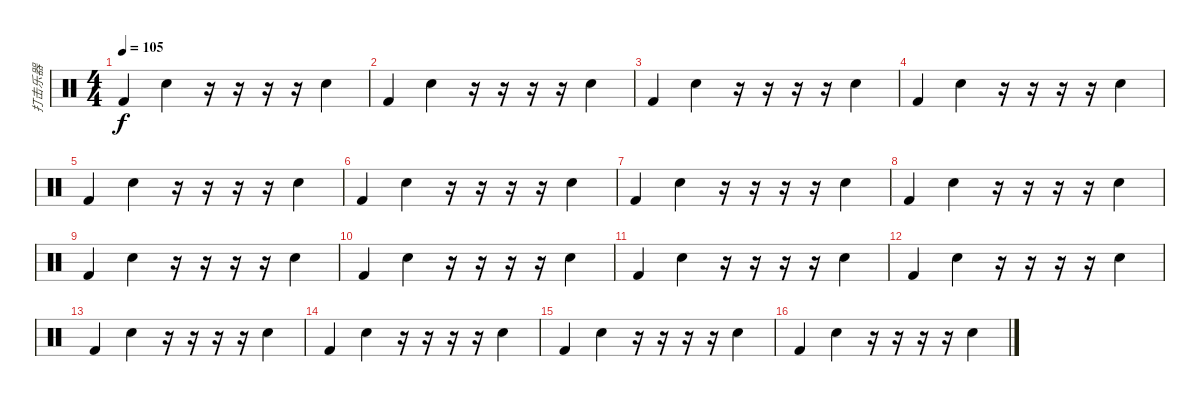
\track ("打击乐器" "打击乐器") {instrument percussion}
\staff {score}
\articulation defaults
\ts (4 4)
\tempo 105
\clef neutral
\ks c "Kick (hit) 2".4{dy f} "Electric Snare (hit)".4
r.16 r.16 r.16 r.16 "Electric Snare (hit)".4 |
"Kick (hit) 2".4 "Electric Snare (hit)".4 r.16 r.16 r.16 r.16 "Electric Snare (hit)".4 |
"Kick (hit) 2".4 "Electric Snare (hit)".4 r.16 r.16 r.16 r.16 "Electric Snare (hit)".4 |
"Kick (hit) 2".4 "Electric Snare (hit)".4 r.16 r.16 r.16 r.16 "Electric Snare (hit)".4 |
"Kick (hit) 2".4 "Electric Snare (hit)".4 r.16 r.16 r.16 r.16 "Electric Snare (hit)".4 |
"Kick (hit) 2".4 "Electric Snare (hit)".4 r.16 r.16 r.16 r.16 "Electric Snare (hit)".4 |
"Kick (hit) 2".4 "Electric Snare (hit)".4 r.16 r.16 r.16 r.16 "Electric Snare (hit)".4 |
"Kick (hit) 2".4 "Electric Snare (hit)".4 r.16 r.16 r.16 r.16 "Electric Snare (hit)".4 |
"Kick (hit) 2".4 "Electric Snare (hit)".4 r.16 r.16 r.16 r.16 "Electric Snare (hit)".4 |
"Kick (hit) 2".4 "Electric Snare (hit)".4 r.16 r.16 r.16 r.16 "Electric Snare (hit)".4 |
"Kick (hit) 2".4 "Electric Snare (hit)".4 r.16 r.16 r.16 r.16 "Electric Snare (hit)".4 |
"Kick (hit) 2".4 "Electric Snare (hit)".4 r.16 r.16 r.16 r.16 "Electric Snare (hit)".4 |
"Kick (hit) 2".4 "Electric Snare (hit)".4 r.16 r.16 r.16 r.16 "Electric Snare (hit)".4 |
"Kick (hit) 2".4 "Electric Snare (hit)".4 r.16 r.16 r.16 r.16 "Electric Snare (hit)".4 |
"Kick (hit) 2".4 "Electric Snare (hit)".4 r.16 r.16 r.16 r.16 "Electric Snare (hit)".4 |
"Kick (hit) 2".4 "Electric Snare (hit)".4 r.16 r.16 r.16 r.16 "Electric Snare (hit)".4
